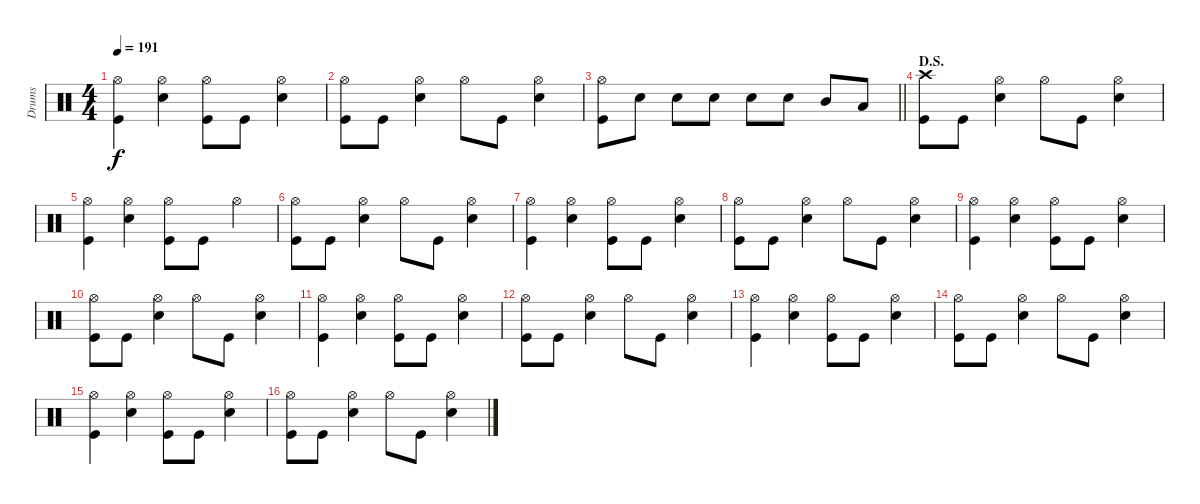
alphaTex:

\track ("Drums" "Drums") {instrument percussion}
\staff {score}
\articulation defaults
\ts (4 4)
\tempo 191
\clef neutral
\ks c
("Hi-Hat (open)" "Kick (hit)").4{dy f} ("Hi-Hat (open)" "Electric Snare (hit)").4 ("Hi-Hat (open)" "Kick (hit)").8 "Kick (hit)".8 ("Hi-Hat (open)" "Electric Snare (hit)").4 |
("Hi-Hat (open)" "Kick (hit)").8 "Kick (hit)".8 ("Hi-Hat (open)" "Electric Snare (hit)").4 "Hi-Hat (open)".8 "Kick (hit)".8 ("Hi-Hat (open)" "Electric Snare (hit)").4 |
\barLineRight lightlight
("Hi-Hat (open)" "Kick (hit)").8 "Electric Snare (hit)".8 "Electric Snare (hit)".8 "Electric Snare (hit)".8 "Electric Snare (hit)".8 "Electric Snare (hit)".8 "Mid Tom (hit)".8 "Low Tom (hit)".8 |
\section ("" "D.S.")
("Crash high (hit)" "Kick (hit)").8 "Kick (hit)".8 ("Hi-Hat (open)" "Electric Snare (hit)").4 "Hi-Hat (open)".8 "Kick (hit)".8 ("Hi-Hat (open)" "Electric Snare (hit)").4 |
("Hi-Hat (open)" "Kick (hit)").4 ("Hi-Hat (open)" "Electric Snare (hit)").4 ("Hi-Hat (open)" "Kick (hit)").8 "Kick (hit)".8 "Hi-Hat (open)".4 |
("Hi-Hat (open)" "Kick (hit)").8 "Kick (hit)".8 ("Hi-Hat (open)" "Electric Snare (hit)").4 "Hi-Hat (open)".8 "Kick (hit)".8 ("Hi-Hat (open)" "Electric Snare (hit)").4 |
("Hi-Hat (open)" "Kick (hit)").4 ("Hi-Hat (open)" "Electric Snare (hit)").4 ("Hi-Hat (open)" "Kick (hit)").8 "Kick (hit)".8 ("Hi-Hat (open)" "Electric Snare (hit)").4 |
("Hi-Hat (open)" "Kick (hit)").8 "Kick (hit)".8 ("Hi-Hat (open)" "Electric Snare (hit)").4 "Hi-Hat (open)".8 "Kick (hit)".8 ("Hi-Hat (open)" "Electric Snare (hit)").4 |
("Hi-Hat (open)" "Kick (hit)").4 ("Hi-Hat (open)" "Electric Snare (hit)").4 ("Hi-Hat (open)" "Kick (hit)").8 "Kick (hit)".8 ("Hi-Hat (open)" "Electric Snare (hit)").4 |
("Hi-Hat (open)" "Kick (hit)").8 "Kick (hit)".8 ("Hi-Hat (open)" "Electric Snare (hit)").4 "Hi-Hat (open)".8 "Kick (hit)".8 ("Hi-Hat (open)" "Electric Snare (hit)").4 |
("Hi-Hat (open)" "Kick (hit)").4 ("Hi-Hat (open)" "Electric Snare (hit)").4 ("Hi-Hat (open)" "Kick (hit)").8 "Kick (hit)".8 ("Hi-Hat (open)" "Electric Snare (hit)").4 |
("Hi-Hat (open)" "Kick (hit)").8 "Kick (hit)".8 ("Hi-Hat (open)" "Electric Snare (hit)").4 "Hi-Hat (open)".8 "Kick (hit)".8 ("Hi-Hat (open)" "Electric Snare (hit)").4 |
("Hi-Hat (open)" "Kick (hit)").4 ("Hi-Hat (open)" "Electric Snare (hit)").4 ("Hi-Hat (open)" "Kick (hit)").8 "Kick (hit)".8 ("Hi-Hat (open)" "Electric Snare (hit)").4 |
("Hi-Hat (open)" "Kick (hit)").8 "Kick (hit)".8 ("Hi-Hat (open)" "Electric Snare (hit)").4 "Hi-Hat (open)".8 "Kick (hit)".8 ("Hi-Hat (open)" "Electric Snare (hit)").4 |
("Hi-Hat (open)" "Kick (hit)").4 ("Hi-Hat (open)" "Electric Snare (hit)").4 ("Hi-Hat (open)" "Kick (hit)").8 "Kick (hit)".8 ("Hi-Hat (open)" "Electric Snare (hit)").4 |
("Hi-Hat (open)" "Kick (hit)").8 "Kick (hit)".8 ("Hi-Hat (open)" "Electric Snare (hit)").4 "Hi-Hat (open)".8 "Kick (hit)".8 ("Hi-Hat (open)" "Electric Snare (hit)").4
